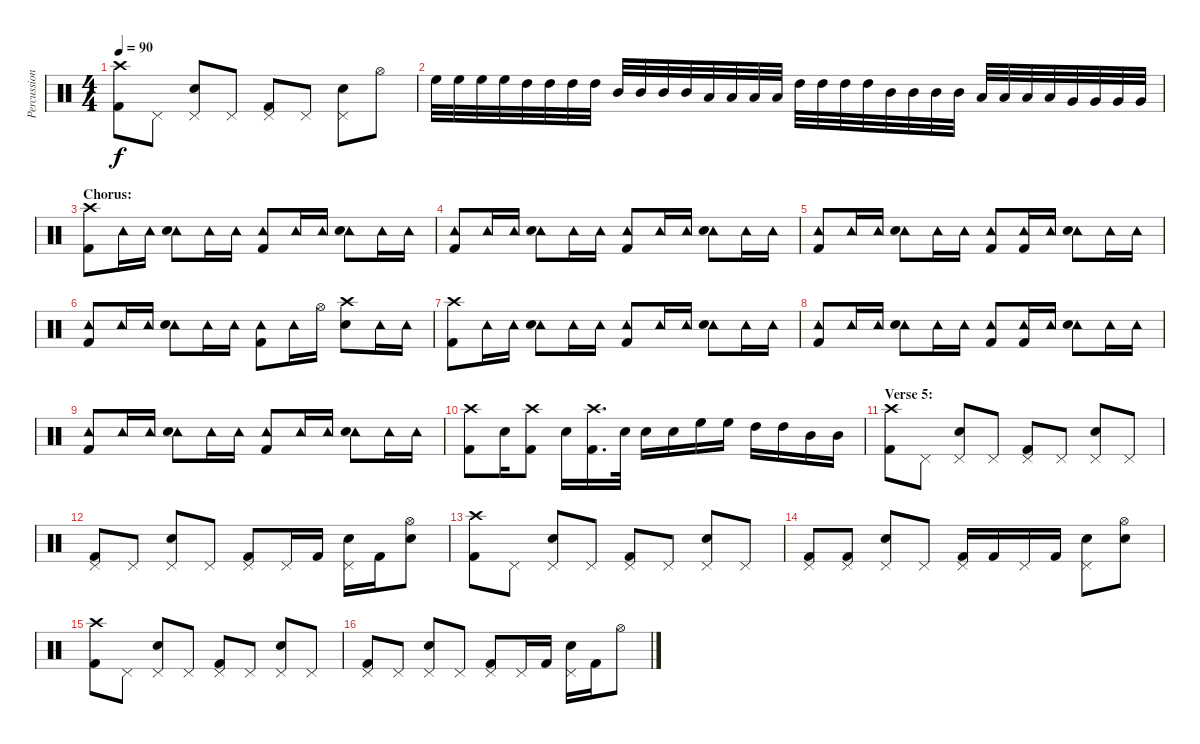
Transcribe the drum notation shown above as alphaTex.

\track ("Percussion" "Percussion") {instrument percussion}
\staff {score}
\articulation defaults
\ts (4 4)
\tempo 90
\clef neutral
\ks c
("Crash high (hit)" "Kick (hit) 2").8{dy f} "Pedal Hi-Hat (hit)".8 ("Pedal Hi-Hat (hit)" "Electric Snare (hit)").8 "Pedal Hi-Hat (hit)".8 ("Pedal Hi-Hat (hit)" "Kick (hit) 2").8 "Pedal Hi-Hat (hit)".8 ("Pedal Hi-Hat (hit)" "Electric Snare (hit)").8 "Hi-Hat (open)".8 |
"High Floor Tom (hit)".32 "High Floor Tom (hit)".32 "High Floor Tom (hit)".32 "High Floor Tom (hit)".32 "High Tom (hit)".32 "High Tom (hit)".32 "High Tom (hit)".32 "High Tom (hit)".32 "Mid Tom (hit)".32 "Mid Tom (hit)".32 "Mid Tom (hit)".32 "Mid Tom (hit)".32 "Low Tom (hit)".32 "Low Tom (hit)".32 "Low Tom (hit)".32 "Low Tom (hit)".32 "High Tom (hit)".32 "High Tom (hit)".32 "High Tom (hit)".32 "High Tom (hit)".32 "Mid Tom (hit)".32 "Mid Tom (hit)".32 "Mid Tom (hit)".32 "Mid Tom (hit)".32 "Low Tom (hit)".32 "Low Tom (hit)".32 "Low Tom (hit)".32 "Low Tom (hit)".32 "Very Low Tom (hit)".32 "Very Low Tom (hit)".32 "Very Low Tom (hit)".32 "Very Low Tom (hit)".32 |
\section ("" "Chorus:")
("Crash high (hit)" "Kick (hit) 2").8 "Tambourine (hit)".16 "Tambourine (hit)".16 ("Tambourine (hit)" "Electric Snare (hit)").8 "Tambourine (hit)".16 "Tambourine (hit)".16 ("Tambourine (hit)" "Kick (hit) 2").8 "Tambourine (hit)".16 "Tambourine (hit)".16 ("Tambourine (hit)" "Electric Snare (hit)").8 "Tambourine (hit)".16 "Tambourine (hit)".16 |
("Tambourine (hit)" "Kick (hit) 2").8 "Tambourine (hit)".16 "Tambourine (hit)".16 ("Tambourine (hit)" "Electric Snare (hit)").8 "Tambourine (hit)".16 "Tambourine (hit)".16 ("Tambourine (hit)" "Kick (hit) 2").8 "Tambourine (hit)".16 "Tambourine (hit)".16 ("Tambourine (hit)" "Electric Snare (hit)").8 "Tambourine (hit)".16 "Tambourine (hit)".16 |
("Tambourine (hit)" "Kick (hit) 2").8 "Tambourine (hit)".16 "Tambourine (hit)".16 ("Tambourine (hit)" "Electric Snare (hit)").8 "Tambourine (hit)".16 "Tambourine (hit)".16 ("Tambourine (hit)" "Kick (hit) 2").8 ("Tambourine (hit)" "Kick (hit) 2").16 "Tambourine (hit)".16 ("Tambourine (hit)" "Electric Snare (hit)").8 "Tambourine (hit)".16 "Tambourine (hit)".16 |
("Tambourine (hit)" "Kick (hit) 2").8 "Tambourine (hit)".16 "Tambourine (hit)".16 ("Tambourine (hit)" "Electric Snare (hit)").8 "Tambourine (hit)".16 "Tambourine (hit)".16 ("Tambourine (hit)" "Kick (hit) 2").8 "Tambourine (hit)".16 "Hi-Hat (open)".16 ("Crash high (hit)" "Electric Snare (hit)").8 "Tambourine (hit)".16 "Tambourine (hit)".16 |
("Crash high (hit)" "Kick (hit) 2").8 "Tambourine (hit)".16 "Tambourine (hit)".16 ("Tambourine (hit)" "Electric Snare (hit)").8 "Tambourine (hit)".16 "Tambourine (hit)".16 ("Tambourine (hit)" "Kick (hit) 2").8 "Tambourine (hit)".16 "Tambourine (hit)".16 ("Tambourine (hit)" "Electric Snare (hit)").8 "Tambourine (hit)".16 "Tambourine (hit)".16 |
("Tambourine (hit)" "Kick (hit) 2").8 "Tambourine (hit)".16 "Tambourine (hit)".16 ("Tambourine (hit)" "Electric Snare (hit)").8 "Tambourine (hit)".16 "Tambourine (hit)".16 ("Tambourine (hit)" "Kick (hit) 2").8 ("Tambourine (hit)" "Kick (hit) 2").16 "Tambourine (hit)".16 ("Tambourine (hit)" "Electric Snare (hit)").8 "Tambourine (hit)".16 "Tambourine (hit)".16 |
("Tambourine (hit)" "Kick (hit) 2").8 "Tambourine (hit)".16 "Tambourine (hit)".16 ("Tambourine (hit)" "Electric Snare (hit)").8 "Tambourine (hit)".16 "Tambourine (hit)".16 ("Tambourine (hit)" "Kick (hit) 2").8 "Tambourine (hit)".16 "Tambourine (hit)".16 ("Tambourine (hit)" "Electric Snare (hit)").8 "Tambourine (hit)".16 "Tambourine (hit)".16 |
("Crash high (hit)" "Kick (hit) 2").8 "Electric Snare (hit)".16 ("Crash high (hit)" "Kick (hit) 2").8 "Electric Snare (hit)".16 ("Crash high (hit)" "Kick (hit) 2").16{d} "Electric Snare (hit)".32 "Electric Snare (hit)".16 "Electric Snare (hit)".16 "High Floor Tom (hit)".16 "High Floor Tom (hit)".16 "High Tom (hit)".16 "High Tom (hit)".16 "Mid Tom (hit)".16 "Mid Tom (hit)".16 |
\section ("" "Verse 5:")
("Crash high (hit)" "Kick (hit) 2").8 "Pedal Hi-Hat (hit)".8 ("Pedal Hi-Hat (hit)" "Electric Snare (hit)").8 "Pedal Hi-Hat (hit)".8 ("Pedal Hi-Hat (hit)" "Kick (hit) 2").8 "Pedal Hi-Hat (hit)".8 ("Pedal Hi-Hat (hit)" "Electric Snare (hit)").8 "Pedal Hi-Hat (hit)".8 |
("Pedal Hi-Hat (hit)" "Kick (hit) 2").8 "Pedal Hi-Hat (hit)".8 ("Pedal Hi-Hat (hit)" "Electric Snare (hit)").8 "Pedal Hi-Hat (hit)".8 ("Pedal Hi-Hat (hit)" "Kick (hit) 2").8 "Pedal Hi-Hat (hit)".16 "Kick (hit) 2".16 ("Pedal Hi-Hat (hit)" "Electric Snare (hit)").16 "Kick (hit) 2".16 ("Hi-Hat (open)" "Electric Snare (hit)").8 |
("Crash high (hit)" "Kick (hit) 2").8 "Pedal Hi-Hat (hit)".8 ("Pedal Hi-Hat (hit)" "Electric Snare (hit)").8 "Pedal Hi-Hat (hit)".8 ("Pedal Hi-Hat (hit)" "Kick (hit) 2").8 "Pedal Hi-Hat (hit)".8 ("Pedal Hi-Hat (hit)" "Electric Snare (hit)").8 "Pedal Hi-Hat (hit)".8 |
("Pedal Hi-Hat (hit)" "Kick (hit) 2").8 ("Pedal Hi-Hat (hit)" "Kick (hit) 2").8 ("Pedal Hi-Hat (hit)" "Electric Snare (hit)").8 "Pedal Hi-Hat (hit)".8 ("Pedal Hi-Hat (hit)" "Kick (hit) 2").16 "Kick (hit) 2".16 "Pedal Hi-Hat (hit)".16 "Kick (hit) 2".16 ("Pedal Hi-Hat (hit)" "Electric Snare (hit)").8 ("Hi-Hat (open)" "Electric Snare (hit)").8 |
("Crash high (hit)" "Kick (hit) 2").8 "Pedal Hi-Hat (hit)".8 ("Pedal Hi-Hat (hit)" "Electric Snare (hit)").8 "Pedal Hi-Hat (hit)".8 ("Pedal Hi-Hat (hit)" "Kick (hit) 2").8 "Pedal Hi-Hat (hit)".8 ("Pedal Hi-Hat (hit)" "Electric Snare (hit)").8 "Pedal Hi-Hat (hit)".8 |
("Pedal Hi-Hat (hit)" "Kick (hit) 2").8 "Pedal Hi-Hat (hit)".8 ("Pedal Hi-Hat (hit)" "Electric Snare (hit)").8 "Pedal Hi-Hat (hit)".8 ("Pedal Hi-Hat (hit)" "Kick (hit) 2").8 "Pedal Hi-Hat (hit)".16 "Kick (hit) 2".16 ("Pedal Hi-Hat (hit)" "Electric Snare (hit)").16 "Kick (hit) 2".16 "Hi-Hat (open)".8
